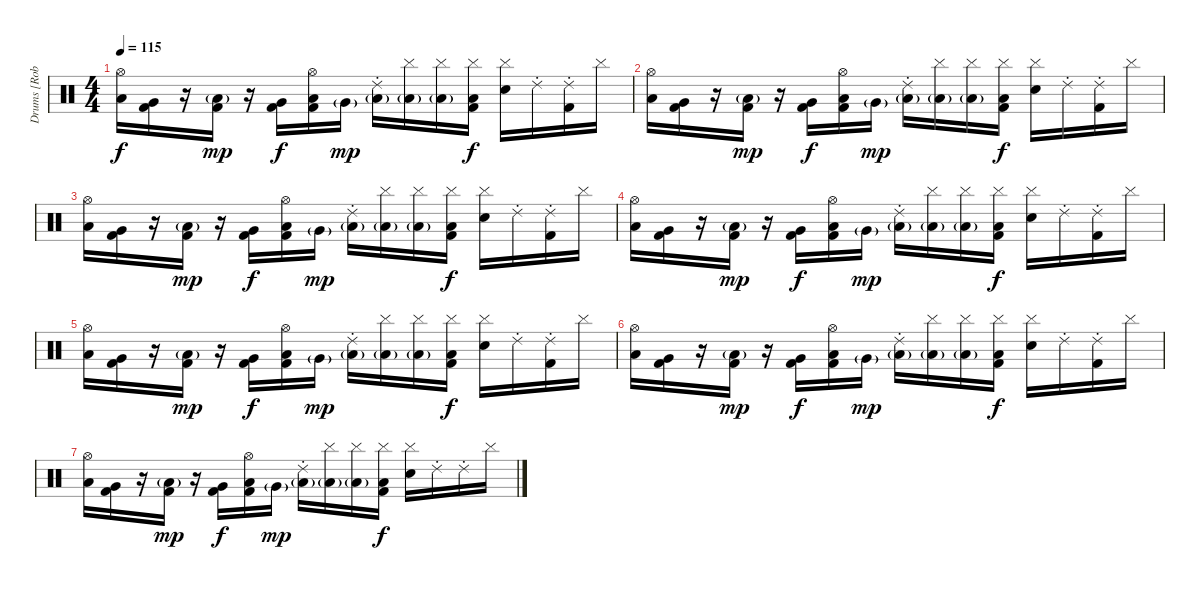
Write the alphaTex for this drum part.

\track ("Drums [Rob Bourdon]" "Drums [Rob") {instrument percussion}
\staff {score}
\articulation defaults
\ts (4 4)
\tempo 115
\clef neutral
\ks c
("Hi-Hat (open)" "Low Tom (hit)").16{dy f} ("Very Low Tom (hit)" "Kick (hit) 2").16 r.16 ("Low Tom (hit)"{g} "Kick (hit) 2").16{dy mp} r.16 ("Very Low Tom (hit)" "Kick (hit) 2").16{dy f} ("Hi-Hat (open)" "Low Tom (hit)" "Kick (hit) 2").16 "Very Low Tom (hit)"{g}.16{dy mp} ("Ride (choke) 2" "Low Tom (hit)"{g}).16 ("Cymbal (hit)" "Low Tom (hit)"{g}).16 ("Cymbal (hit)" "Low Tom (hit)"{g}).16 ("Cymbal (hit)" "Low Tom (hit)" "Kick (hit) 2").16{dy f} ("Cymbal (hit)" "Electric Snare (hit)").16 "Ride (choke) 2".16 ("Ride (choke) 2" "Kick (hit) 2").16 "Cymbal (hit)".16 |
("Hi-Hat (open)" "Low Tom (hit)").16 ("Very Low Tom (hit)" "Kick (hit) 2").16 r.16 ("Low Tom (hit)"{g} "Kick (hit) 2").16{dy mp} r.16 ("Very Low Tom (hit)" "Kick (hit) 2").16{dy f} ("Hi-Hat (open)" "Low Tom (hit)" "Kick (hit) 2").16 "Very Low Tom (hit)"{g}.16{dy mp} ("Ride (choke) 2" "Low Tom (hit)"{g}).16 ("Cymbal (hit)" "Low Tom (hit)"{g}).16 ("Cymbal (hit)" "Low Tom (hit)"{g}).16 ("Cymbal (hit)" "Low Tom (hit)" "Kick (hit) 2").16{dy f} ("Cymbal (hit)" "Electric Snare (hit)").16 "Ride (choke) 2".16 ("Ride (choke) 2" "Kick (hit) 2").16 "Cymbal (hit)".16 |
("Hi-Hat (open)" "Low Tom (hit)").16 ("Very Low Tom (hit)" "Kick (hit) 2").16 r.16 ("Low Tom (hit)"{g} "Kick (hit) 2").16{dy mp} r.16 ("Very Low Tom (hit)" "Kick (hit) 2").16{dy f} ("Hi-Hat (open)" "Low Tom (hit)" "Kick (hit) 2").16 "Very Low Tom (hit)"{g}.16{dy mp} ("Ride (choke) 2" "Low Tom (hit)"{g}).16 ("Cymbal (hit)" "Low Tom (hit)"{g}).16 ("Cymbal (hit)" "Low Tom (hit)"{g}).16 ("Cymbal (hit)" "Low Tom (hit)" "Kick (hit) 2").16{dy f} ("Cymbal (hit)" "Electric Snare (hit)").16 "Ride (choke) 2".16 ("Ride (choke) 2" "Kick (hit) 2").16 "Cymbal (hit)".16 |
("Hi-Hat (open)" "Low Tom (hit)").16 ("Very Low Tom (hit)" "Kick (hit) 2").16 r.16 ("Low Tom (hit)"{g} "Kick (hit) 2").16{dy mp} r.16 ("Very Low Tom (hit)" "Kick (hit) 2").16{dy f} ("Hi-Hat (open)" "Low Tom (hit)" "Kick (hit) 2").16 "Very Low Tom (hit)"{g}.16{dy mp} ("Ride (choke) 2" "Low Tom (hit)"{g}).16 ("Cymbal (hit)" "Low Tom (hit)"{g}).16 ("Cymbal (hit)" "Low Tom (hit)"{g}).16 ("Cymbal (hit)" "Low Tom (hit)" "Kick (hit) 2").16{dy f} ("Cymbal (hit)" "Electric Snare (hit)").16 "Ride (choke) 2".16 ("Ride (choke) 2" "Kick (hit) 2").16 "Cymbal (hit)".16 |
("Hi-Hat (open)" "Low Tom (hit)").16 ("Very Low Tom (hit)" "Kick (hit) 2").16 r.16 ("Low Tom (hit)"{g} "Kick (hit) 2").16{dy mp} r.16 ("Very Low Tom (hit)" "Kick (hit) 2").16{dy f} ("Hi-Hat (open)" "Low Tom (hit)" "Kick (hit) 2").16 "Very Low Tom (hit)"{g}.16{dy mp} ("Ride (choke) 2" "Low Tom (hit)"{g}).16 ("Cymbal (hit)" "Low Tom (hit)"{g}).16 ("Cymbal (hit)" "Low Tom (hit)"{g}).16 ("Cymbal (hit)" "Low Tom (hit)" "Kick (hit) 2").16{dy f} ("Cymbal (hit)" "Electric Snare (hit)").16 "Ride (choke) 2".16 ("Ride (choke) 2" "Kick (hit) 2").16 "Cymbal (hit)".16 |
("Hi-Hat (open)" "Low Tom (hit)").16 ("Very Low Tom (hit)" "Kick (hit) 2").16 r.16 ("Low Tom (hit)"{g} "Kick (hit) 2").16{dy mp} r.16 ("Very Low Tom (hit)" "Kick (hit) 2").16{dy f} ("Hi-Hat (open)" "Low Tom (hit)" "Kick (hit) 2").16 "Very Low Tom (hit)"{g}.16{dy mp} ("Ride (choke) 2" "Low Tom (hit)"{g}).16 ("Cymbal (hit)" "Low Tom (hit)"{g}).16 ("Cymbal (hit)" "Low Tom (hit)"{g}).16 ("Cymbal (hit)" "Low Tom (hit)" "Kick (hit) 2").16{dy f} ("Cymbal (hit)" "Electric Snare (hit)").16 "Ride (choke) 2".16 ("Ride (choke) 2" "Kick (hit) 2").16 "Cymbal (hit)".16 |
("Hi-Hat (open)" "Low Tom (hit)").16 ("Very Low Tom (hit)" "Kick (hit) 2").16 r.16 ("Low Tom (hit)"{g} "Kick (hit) 2").16{dy mp} r.16 ("Very Low Tom (hit)" "Kick (hit) 2").16{dy f} ("Hi-Hat (open)" "Low Tom (hit)" "Kick (hit) 2").16 "Very Low Tom (hit)"{g}.16{dy mp} ("Ride (choke) 2" "Low Tom (hit)"{g}).16 ("Cymbal (hit)" "Low Tom (hit)"{g}).16 ("Cymbal (hit)" "Low Tom (hit)"{g}).16 ("Cymbal (hit)" "Low Tom (hit)" "Kick (hit) 2").16{dy f} ("Cymbal (hit)" "Electric Snare (hit)").16 "Ride (choke) 2".16 "Ride (choke) 2".16 "Cymbal (hit)".16
